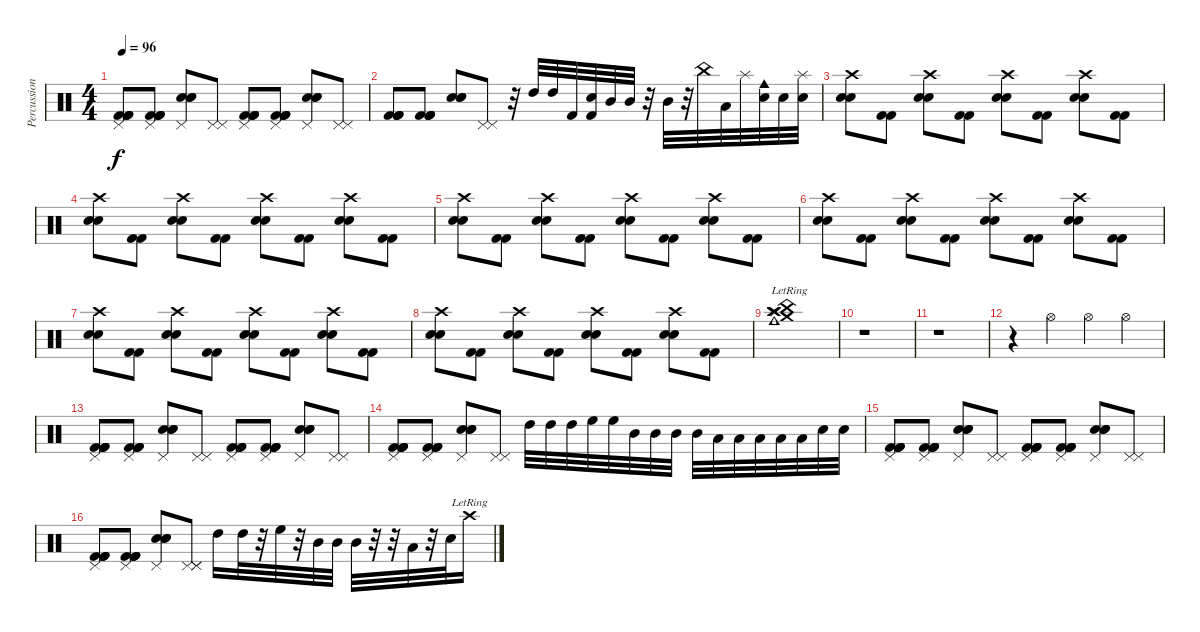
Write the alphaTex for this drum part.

\track ("Percussion" "Percussion") {instrument percussion}
\staff {score}
\articulation defaults
\ts (4 4)
\tempo 96
\clef neutral
\ks c
("Pedal Hi-Hat (hit)" "Kick (hit) 2" "Kick (hit) 2" "Kick (hit) 2" "Kick (hit) 2").8{dy f} ("Pedal Hi-Hat (hit)" "Kick (hit) 2" "Kick (hit) 2" "Kick (hit) 2" "Kick (hit) 2").8 ("Pedal Hi-Hat (hit)" "Electric Snare (hit)" "Electric Snare (hit)" "Electric Snare (hit)").8 ("Pedal Hi-Hat (hit)" "Pedal Hi-Hat (hit)").8 ("Pedal Hi-Hat (hit)" "Kick (hit) 2" "Kick (hit) 2" "Kick (hit) 2" "Kick (hit) 2").8 ("Pedal Hi-Hat (hit)" "Kick (hit) 2" "Kick (hit) 2" "Kick (hit) 2" "Kick (hit) 2").8 ("Pedal Hi-Hat (hit)" "Electric Snare (hit)" "Electric Snare (hit)" "Electric Snare (hit)").8 ("Pedal Hi-Hat (hit)" "Pedal Hi-Hat (hit)").8 |
("Kick (hit) 2" "Kick (hit) 2" "Kick (hit) 2" "Kick (hit) 2").8 ("Kick (hit) 2" "Kick (hit) 2" "Kick (hit) 2" "Kick (hit) 2").8 ("Electric Snare (hit)" "Electric Snare (hit)" "Electric Snare (hit)").8 ("Pedal Hi-Hat (hit)" "Pedal Hi-Hat (hit)").8 r.32 "High Tom (hit)".32 "High Tom (hit)".32 "Kick (hit) 2".32 ("Electric Snare (hit)" "Kick (hit) 2").32 "Mid Tom (hit)".32 "Mid Tom (hit)".32 r.32 "Mid Tom (hit)".32 r.32 "China (hit)".32 "Low Tom (hit)".32 "Splash (hit)".32 ("Electric Snare (hit)" "Cowbell medium (hit)").32 "Electric Snare (hit)".32 ("Splash (hit)" "Electric Snare (hit)").32 |
("Crash high (hit)" "Electric Snare (hit)" "Electric Snare (hit)").8 ("Kick (hit) 2" "Kick (hit) 2").8 ("Crash high (hit)" "Electric Snare (hit)" "Electric Snare (hit)").8 ("Kick (hit) 2" "Kick (hit) 2").8 ("Crash high (hit)" "Electric Snare (hit)" "Electric Snare (hit)").8 ("Kick (hit) 2" "Kick (hit) 2").8 ("Crash high (hit)" "Electric Snare (hit)" "Electric Snare (hit)").8 ("Kick (hit) 2" "Kick (hit) 2").8 |
("Crash high (hit)" "Electric Snare (hit)" "Electric Snare (hit)").8 ("Kick (hit) 2" "Kick (hit) 2").8 ("Crash high (hit)" "Electric Snare (hit)" "Electric Snare (hit)").8 ("Kick (hit) 2" "Kick (hit) 2").8 ("Crash high (hit)" "Electric Snare (hit)" "Electric Snare (hit)").8 ("Kick (hit) 2" "Kick (hit) 2").8 ("Crash high (hit)" "Electric Snare (hit)" "Electric Snare (hit)").8 ("Kick (hit) 2" "Kick (hit) 2").8 |
("Crash high (hit)" "Electric Snare (hit)" "Electric Snare (hit)").8 ("Kick (hit) 2" "Kick (hit) 2").8 ("Crash high (hit)" "Electric Snare (hit)" "Electric Snare (hit)").8 ("Kick (hit) 2" "Kick (hit) 2").8 ("Crash high (hit)" "Electric Snare (hit)" "Electric Snare (hit)").8 ("Kick (hit) 2" "Kick (hit) 2").8 ("Crash high (hit)" "Electric Snare (hit)" "Electric Snare (hit)").8 ("Kick (hit) 2" "Kick (hit) 2").8 |
("Crash high (hit)" "Electric Snare (hit)" "Electric Snare (hit)").8 ("Kick (hit) 2" "Kick (hit) 2").8 ("Crash high (hit)" "Electric Snare (hit)" "Electric Snare (hit)").8 ("Kick (hit) 2" "Kick (hit) 2").8 ("Crash high (hit)" "Electric Snare (hit)" "Electric Snare (hit)").8 ("Kick (hit) 2" "Kick (hit) 2").8 ("Crash high (hit)" "Electric Snare (hit)" "Electric Snare (hit)").8 ("Kick (hit) 2" "Kick (hit) 2").8 |
("Crash high (hit)" "Electric Snare (hit)" "Electric Snare (hit)").8 ("Kick (hit) 2" "Kick (hit) 2").8 ("Crash high (hit)" "Electric Snare (hit)" "Electric Snare (hit)").8 ("Kick (hit) 2" "Kick (hit) 2").8 ("Crash high (hit)" "Electric Snare (hit)" "Electric Snare (hit)").8 ("Kick (hit) 2" "Kick (hit) 2").8 ("Crash high (hit)" "Electric Snare (hit)" "Electric Snare (hit)").8 ("Kick (hit) 2" "Kick (hit) 2").8 |
("Crash high (hit)" "Electric Snare (hit)" "Electric Snare (hit)").8 ("Kick (hit) 2" "Kick (hit) 2").8 ("Crash high (hit)" "Electric Snare (hit)" "Electric Snare (hit)").8 ("Kick (hit) 2" "Kick (hit) 2").8 ("Crash high (hit)" "Electric Snare (hit)" "Electric Snare (hit)").8 ("Kick (hit) 2" "Kick (hit) 2").8 ("Crash high (hit)" "Electric Snare (hit)" "Electric Snare (hit)").8 ("Kick (hit) 2" "Kick (hit) 2").8 |
("Cowbell medium (hit)"{lr} "Crash high (hit)"{lr} "Crash high (hit)"{lr} "Crash medium (hit)"{lr} "China (hit)"{lr} "Splash (hit)"{lr}).1 |
r.1 |
r.1 |
r.4 "Hi-Hat (open)".4 "Hi-Hat (open)".4 "Hi-Hat (open)".4 |
("Pedal Hi-Hat (hit)" "Kick (hit) 2" "Kick (hit) 2" "Kick (hit) 2" "Kick (hit) 2").8 ("Pedal Hi-Hat (hit)" "Kick (hit) 2" "Kick (hit) 2" "Kick (hit) 2" "Kick (hit) 2").8 ("Pedal Hi-Hat (hit)" "Electric Snare (hit)" "Electric Snare (hit)" "Electric Snare (hit)").8 ("Pedal Hi-Hat (hit)" "Pedal Hi-Hat (hit)").8 ("Pedal Hi-Hat (hit)" "Kick (hit) 2" "Kick (hit) 2" "Kick (hit) 2" "Kick (hit) 2").8 ("Pedal Hi-Hat (hit)" "Kick (hit) 2" "Kick (hit) 2" "Kick (hit) 2" "Kick (hit) 2").8 ("Pedal Hi-Hat (hit)" "Electric Snare (hit)" "Electric Snare (hit)" "Electric Snare (hit)").8 ("Pedal Hi-Hat (hit)" "Pedal Hi-Hat (hit)").8 |
("Pedal Hi-Hat (hit)" "Kick (hit) 2" "Kick (hit) 2" "Kick (hit) 2" "Kick (hit) 2").8 ("Pedal Hi-Hat (hit)" "Kick (hit) 2" "Kick (hit) 2" "Kick (hit) 2" "Kick (hit) 2").8 ("Pedal Hi-Hat (hit)" "Electric Snare (hit)" "Electric Snare (hit)" "Electric Snare (hit)").8 ("Pedal Hi-Hat (hit)" "Pedal Hi-Hat (hit)").8 "High Tom (hit)".32 "High Tom (hit)".32 "High Tom (hit)".32 "High Floor Tom (hit)".32 "High Floor Tom (hit)".32 "Mid Tom (hit)".32 "Mid Tom (hit)".32 "Mid Tom (hit)".32 "Mid Tom (hit)".32 "Low Tom (hit)".32 "Low Tom (hit)".32 "Low Tom (hit)".32 "Low Floor Tom (hit)".32 "Low Floor Tom (hit)".32 "Electric Snare (hit)".32 "Electric Snare (hit)".32 |
("Pedal Hi-Hat (hit)" "Kick (hit) 2" "Kick (hit) 2" "Kick (hit) 2" "Kick (hit) 2").8 ("Pedal Hi-Hat (hit)" "Kick (hit) 2" "Kick (hit) 2" "Kick (hit) 2" "Kick (hit) 2").8 ("Pedal Hi-Hat (hit)" "Electric Snare (hit)" "Electric Snare (hit)" "Electric Snare (hit)").8 ("Pedal Hi-Hat (hit)" "Pedal Hi-Hat (hit)").8 ("Pedal Hi-Hat (hit)" "Kick (hit) 2" "Kick (hit) 2" "Kick (hit) 2" "Kick (hit) 2").8 ("Pedal Hi-Hat (hit)" "Kick (hit) 2" "Kick (hit) 2" "Kick (hit) 2" "Kick (hit) 2").8 ("Pedal Hi-Hat (hit)" "Electric Snare (hit)" "Electric Snare (hit)" "Electric Snare (hit)").8 ("Pedal Hi-Hat (hit)" "Pedal Hi-Hat (hit)").8 |
("Pedal Hi-Hat (hit)" "Kick (hit) 2" "Kick (hit) 2" "Kick (hit) 2" "Kick (hit) 2").8 ("Pedal Hi-Hat (hit)" "Kick (hit) 2" "Kick (hit) 2" "Kick (hit) 2" "Kick (hit) 2").8 ("Pedal Hi-Hat (hit)" "Electric Snare (hit)" "Electric Snare (hit)" "Electric Snare (hit)").8 ("Pedal Hi-Hat (hit)" "Pedal Hi-Hat (hit)" "Pedal Hi-Hat (hit)").8 "High Tom (hit)".16 "High Tom (hit)".32 r.32 "High Floor Tom (hit)".32 r.32 "Mid Tom (hit)".32 "Mid Tom (hit)".32 "Mid Tom (hit)".32 r.32 r.32 "Low Tom (hit)".32 r.32 "Electric Snare (hit)".32 "Crash high (hit)"{lr}.16
